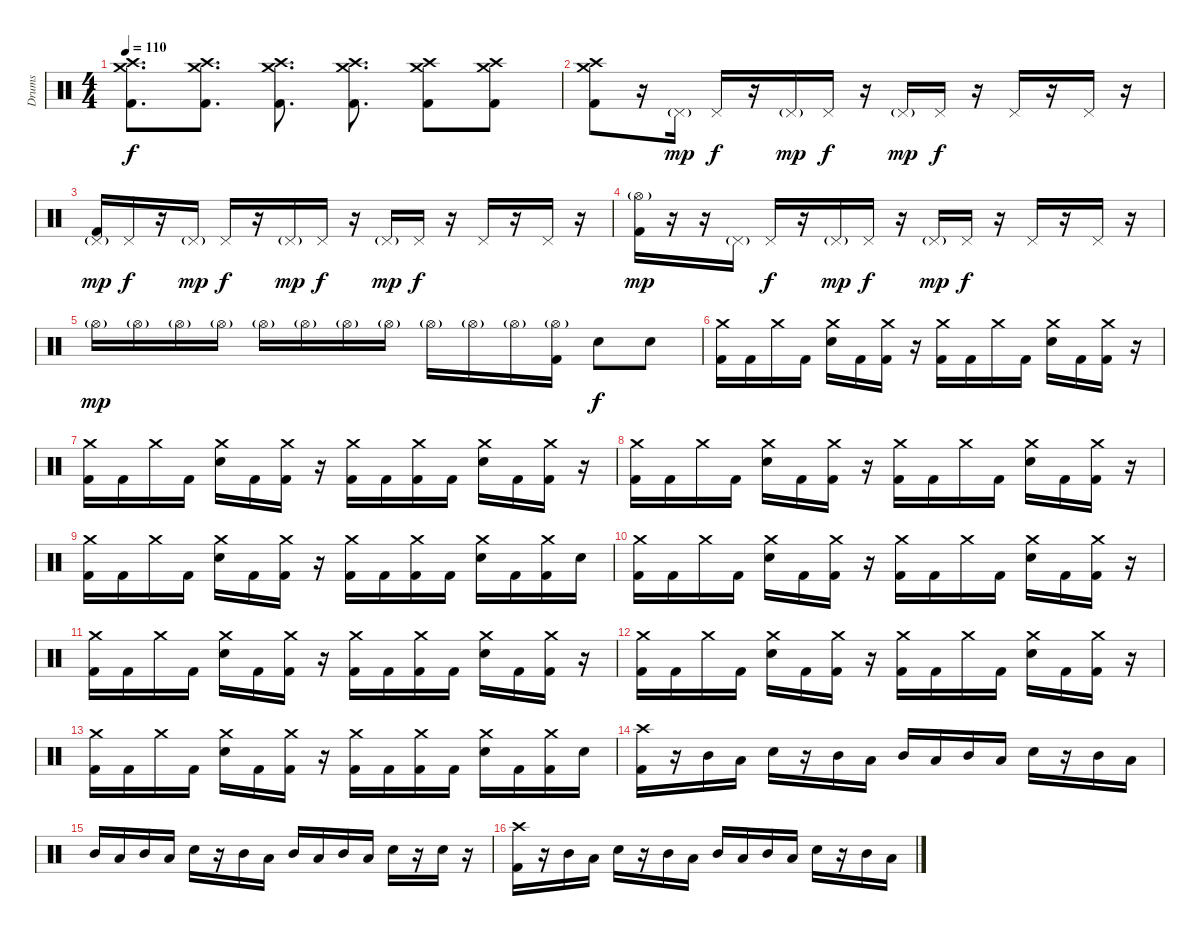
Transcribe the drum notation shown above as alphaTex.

\track ("Drums" "Drums") {instrument percussion}
\staff {score}
\articulation defaults
\ts (4 4)
\tempo 110
\clef neutral
\ks c
("Crash medium (hit)" "Crash high (hit)" "Kick (hit) 2").8{d dy f} ("Crash medium (hit)" "Crash high (hit)" "Kick (hit) 2").8{d} ("Crash medium (hit)" "Crash high (hit)" "Kick (hit) 2").8{d} ("Crash medium (hit)" "Crash high (hit)" "Kick (hit) 2").8{d} ("Crash medium (hit)" "Crash high (hit)" "Kick (hit) 2").8 ("Crash medium (hit)" "Crash high (hit)" "Kick (hit) 2").8 |
("Crash medium (hit)" "Crash high (hit)" "Kick (hit) 2").8 r.16 "Pedal Hi-Hat (hit)"{g}.16{dy mp} "Pedal Hi-Hat (hit)".16{dy f} r.16 "Pedal Hi-Hat (hit)"{g}.16{dy mp} "Pedal Hi-Hat (hit)".16{dy f} r.16 "Pedal Hi-Hat (hit)"{g}.16{dy mp} "Pedal Hi-Hat (hit)".16{dy f} r.16 "Pedal Hi-Hat (hit)".16 r.16 "Pedal Hi-Hat (hit)".16 r.16 |
("Pedal Hi-Hat (hit)"{g} "Kick (hit) 2").16{dy mp} "Pedal Hi-Hat (hit)".16{dy f} r.16 "Pedal Hi-Hat (hit)"{g}.16{dy mp} "Pedal Hi-Hat (hit)".16{dy f} r.16 "Pedal Hi-Hat (hit)"{g}.16{dy mp} "Pedal Hi-Hat (hit)".16{dy f} r.16 "Pedal Hi-Hat (hit)"{g}.16{dy mp} "Pedal Hi-Hat (hit)".16{dy f} r.16 "Pedal Hi-Hat (hit)".16 r.16 "Pedal Hi-Hat (hit)".16 r.16 |
("Hi-Hat (open)"{g} "Kick (hit) 2").16{dy mp} r.16 r.16 "Pedal Hi-Hat (hit)"{g}.16 "Pedal Hi-Hat (hit)".16{dy f} r.16 "Pedal Hi-Hat (hit)"{g}.16{dy mp} "Pedal Hi-Hat (hit)".16{dy f} r.16 "Pedal Hi-Hat (hit)"{g}.16{dy mp} "Pedal Hi-Hat (hit)".16{dy f} r.16 "Pedal Hi-Hat (hit)".16 r.16 "Pedal Hi-Hat (hit)".16 r.16 |
"Hi-Hat (open)"{g}.16{dy mp} "Hi-Hat (open)"{g}.16 "Hi-Hat (open)"{g}.16 "Hi-Hat (open)"{g}.16 "Hi-Hat (open)"{g}.16 "Hi-Hat (open)"{g}.16 "Hi-Hat (open)"{g}.16 "Hi-Hat (open)"{g}.16 "Hi-Hat (open)"{g}.16 "Hi-Hat (open)"{g}.16 "Hi-Hat (open)"{g}.16 ("Hi-Hat (open)"{g} "Kick (hit) 2").16 "Electric Snare (hit)".8{dy f} "Electric Snare (hit)".8 |
("Crash medium (hit)" "Kick (hit) 2").16 "Kick (hit) 2".16 "Crash medium (hit)".16 "Kick (hit) 2".16 ("Crash medium (hit)" "Snare (hit) 2").16 "Kick (hit) 2".16 ("Crash medium (hit)" "Kick (hit) 2").16 r.16 ("Crash medium (hit)" "Kick (hit) 2").16 "Kick (hit) 2".16 "Crash medium (hit)".16 "Kick (hit) 2".16 ("Crash medium (hit)" "Snare (hit) 2").16 "Kick (hit) 2".16 ("Crash medium (hit)" "Kick (hit) 2").16 r.16 |
("Crash medium (hit)" "Kick (hit) 2").16 "Kick (hit) 2".16 "Crash medium (hit)".16 "Kick (hit) 2".16 ("Crash medium (hit)" "Snare (hit) 2").16 "Kick (hit) 2".16 ("Crash medium (hit)" "Kick (hit) 2").16 r.16 ("Crash medium (hit)" "Kick (hit) 2").16 "Kick (hit) 2".16 ("Crash medium (hit)" "Kick (hit) 2").16 "Kick (hit) 2".16 ("Crash medium (hit)" "Snare (hit) 2").16 "Kick (hit) 2".16 ("Crash medium (hit)" "Kick (hit) 2").16 r.16 |
("Crash medium (hit)" "Kick (hit) 2").16 "Kick (hit) 2".16 "Crash medium (hit)".16 "Kick (hit) 2".16 ("Crash medium (hit)" "Snare (hit) 2").16 "Kick (hit) 2".16 ("Crash medium (hit)" "Kick (hit) 2").16 r.16 ("Crash medium (hit)" "Kick (hit) 2").16 "Kick (hit) 2".16 "Crash medium (hit)".16 "Kick (hit) 2".16 ("Crash medium (hit)" "Snare (hit) 2").16 "Kick (hit) 2".16 ("Crash medium (hit)" "Kick (hit) 2").16 r.16 |
("Crash medium (hit)" "Kick (hit) 2").16 "Kick (hit) 2".16 "Crash medium (hit)".16 "Kick (hit) 2".16 ("Crash medium (hit)" "Snare (hit) 2").16 "Kick (hit) 2".16 ("Crash medium (hit)" "Kick (hit) 2").16 r.16 ("Crash medium (hit)" "Kick (hit) 2").16 "Kick (hit) 2".16 ("Crash medium (hit)" "Kick (hit) 2").16 "Kick (hit) 2".16 ("Crash medium (hit)" "Snare (hit) 2").16 "Kick (hit) 2".16 ("Crash medium (hit)" "Kick (hit) 2").16 "Snare (hit) 2".16 |
("Crash medium (hit)" "Kick (hit) 2").16 "Kick (hit) 2".16 "Crash medium (hit)".16 "Kick (hit) 2".16 ("Crash medium (hit)" "Snare (hit) 2").16 "Kick (hit) 2".16 ("Crash medium (hit)" "Kick (hit) 2").16 r.16 ("Crash medium (hit)" "Kick (hit) 2").16 "Kick (hit) 2".16 "Crash medium (hit)".16 "Kick (hit) 2".16 ("Crash medium (hit)" "Snare (hit) 2").16 "Kick (hit) 2".16 ("Crash medium (hit)" "Kick (hit) 2").16 r.16 |
("Crash medium (hit)" "Kick (hit) 2").16 "Kick (hit) 2".16 "Crash medium (hit)".16 "Kick (hit) 2".16 ("Crash medium (hit)" "Snare (hit) 2").16 "Kick (hit) 2".16 ("Crash medium (hit)" "Kick (hit) 2").16 r.16 ("Crash medium (hit)" "Kick (hit) 2").16 "Kick (hit) 2".16 ("Crash medium (hit)" "Kick (hit) 2").16 "Kick (hit) 2".16 ("Crash medium (hit)" "Snare (hit) 2").16 "Kick (hit) 2".16 ("Crash medium (hit)" "Kick (hit) 2").16 r.16 |
("Crash medium (hit)" "Kick (hit) 2").16 "Kick (hit) 2".16 "Crash medium (hit)".16 "Kick (hit) 2".16 ("Crash medium (hit)" "Snare (hit) 2").16 "Kick (hit) 2".16 ("Crash medium (hit)" "Kick (hit) 2").16 r.16 ("Crash medium (hit)" "Kick (hit) 2").16 "Kick (hit) 2".16 "Crash medium (hit)".16 "Kick (hit) 2".16 ("Crash medium (hit)" "Snare (hit) 2").16 "Kick (hit) 2".16 ("Crash medium (hit)" "Kick (hit) 2").16 r.16 |
("Crash medium (hit)" "Kick (hit) 2").16 "Kick (hit) 2".16 "Crash medium (hit)".16 "Kick (hit) 2".16 ("Crash medium (hit)" "Snare (hit) 2").16 "Kick (hit) 2".16 ("Crash medium (hit)" "Kick (hit) 2").16 r.16 ("Crash medium (hit)" "Kick (hit) 2").16 "Kick (hit) 2".16 ("Crash medium (hit)" "Kick (hit) 2").16 "Kick (hit) 2".16 ("Crash medium (hit)" "Snare (hit) 2").16 "Kick (hit) 2".16 ("Crash medium (hit)" "Kick (hit) 2").16 "Snare (hit) 2".16 |
("Crash high (hit)" "Kick (hit) 2").16 r.16 "Mid Tom (hit)".16 "Low Tom (hit)".16 "Electric Snare (hit)".16 r.16 "Mid Tom (hit)".16 "Low Tom (hit)".16 "Mid Tom (hit)".16 "Low Tom (hit)".16 "Mid Tom (hit)".16 "Low Tom (hit)".16 "Electric Snare (hit)".16 r.16 "Mid Tom (hit)".16 "Low Tom (hit)".16 |
"Mid Tom (hit)".16 "Low Tom (hit)".16 "Mid Tom (hit)".16 "Low Tom (hit)".16 "Electric Snare (hit)".16 r.16 "Mid Tom (hit)".16 "Low Tom (hit)".16 "Mid Tom (hit)".16 "Low Tom (hit)".16 "Mid Tom (hit)".16 "Low Tom (hit)".16 "Electric Snare (hit)".16 r.16 "Electric Snare (hit)".16 r.16 |
("Crash high (hit)" "Kick (hit) 2").16 r.16 "Mid Tom (hit)".16 "Low Tom (hit)".16 "Electric Snare (hit)".16 r.16 "Mid Tom (hit)".16 "Low Tom (hit)".16 "Mid Tom (hit)".16 "Low Tom (hit)".16 "Mid Tom (hit)".16 "Low Tom (hit)".16 "Electric Snare (hit)".16 r.16 "Mid Tom (hit)".16 "Low Tom (hit)".16
